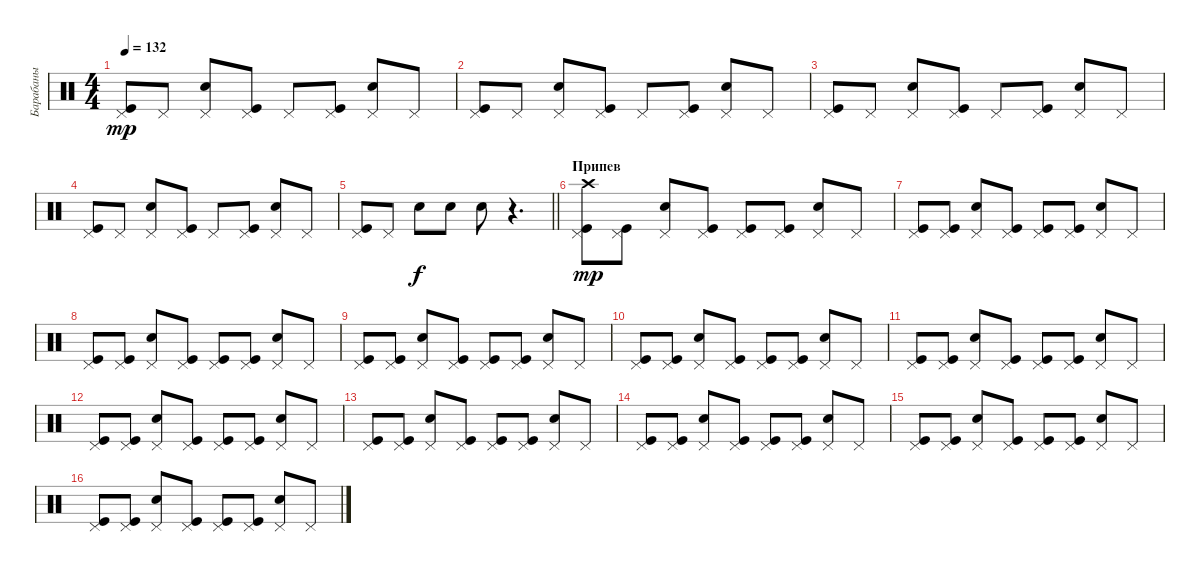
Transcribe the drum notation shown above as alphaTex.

\track ("Барабаны" "Барабаны") {instrument percussion}
\staff {score}
\articulation defaults
\ts (4 4)
\tempo 132
\clef neutral
\ks c
("Kick (hit)" "Pedal Hi-Hat (hit)").8{dy mp} "Pedal Hi-Hat (hit)".8 ("Snare (hit) 2" "Pedal Hi-Hat (hit)").8 ("Kick (hit)" "Pedal Hi-Hat (hit)").8 "Pedal Hi-Hat (hit)".8 ("Kick (hit)" "Pedal Hi-Hat (hit)").8 ("Snare (hit) 2" "Pedal Hi-Hat (hit)").8 "Pedal Hi-Hat (hit)".8 |
("Kick (hit)" "Pedal Hi-Hat (hit)").8 "Pedal Hi-Hat (hit)".8 ("Snare (hit) 2" "Pedal Hi-Hat (hit)").8 ("Kick (hit)" "Pedal Hi-Hat (hit)").8 "Pedal Hi-Hat (hit)".8 ("Kick (hit)" "Pedal Hi-Hat (hit)").8 ("Snare (hit) 2" "Pedal Hi-Hat (hit)").8 "Pedal Hi-Hat (hit)".8 |
("Kick (hit)" "Pedal Hi-Hat (hit)").8 "Pedal Hi-Hat (hit)".8 ("Snare (hit) 2" "Pedal Hi-Hat (hit)").8 ("Kick (hit)" "Pedal Hi-Hat (hit)").8 "Pedal Hi-Hat (hit)".8 ("Kick (hit)" "Pedal Hi-Hat (hit)").8 ("Snare (hit) 2" "Pedal Hi-Hat (hit)").8 "Pedal Hi-Hat (hit)".8 |
("Kick (hit)" "Pedal Hi-Hat (hit)").8 "Pedal Hi-Hat (hit)".8 ("Snare (hit) 2" "Pedal Hi-Hat (hit)").8 ("Kick (hit)" "Pedal Hi-Hat (hit)").8 "Pedal Hi-Hat (hit)".8 ("Kick (hit)" "Pedal Hi-Hat (hit)").8 ("Snare (hit) 2" "Pedal Hi-Hat (hit)").8 "Pedal Hi-Hat (hit)".8 |
\barLineRight lightlight
("Kick (hit)" "Pedal Hi-Hat (hit)").8 "Pedal Hi-Hat (hit)".8 "Snare (hit) 2".8{dy f} "Snare (hit) 2".8 "Snare (hit) 2".8 r.4{d} |
\section ("" "Припев")
("Kick (hit)" "Pedal Hi-Hat (hit)" "Crash high (hit)").8{dy mp} ("Kick (hit)" "Pedal Hi-Hat (hit)").8 ("Snare (hit) 2" "Pedal Hi-Hat (hit)").8 ("Kick (hit)" "Pedal Hi-Hat (hit)").8 ("Kick (hit)" "Pedal Hi-Hat (hit)").8 ("Kick (hit)" "Pedal Hi-Hat (hit)").8 ("Snare (hit) 2" "Pedal Hi-Hat (hit)").8 "Pedal Hi-Hat (hit)".8 |
("Kick (hit)" "Pedal Hi-Hat (hit)").8 ("Kick (hit)" "Pedal Hi-Hat (hit)").8 ("Snare (hit) 2" "Pedal Hi-Hat (hit)").8 ("Kick (hit)" "Pedal Hi-Hat (hit)").8 ("Kick (hit)" "Pedal Hi-Hat (hit)").8 ("Kick (hit)" "Pedal Hi-Hat (hit)").8 ("Snare (hit) 2" "Pedal Hi-Hat (hit)").8 "Pedal Hi-Hat (hit)".8 |
("Kick (hit)" "Pedal Hi-Hat (hit)").8 ("Kick (hit)" "Pedal Hi-Hat (hit)").8 ("Snare (hit) 2" "Pedal Hi-Hat (hit)").8 ("Kick (hit)" "Pedal Hi-Hat (hit)").8 ("Kick (hit)" "Pedal Hi-Hat (hit)").8 ("Kick (hit)" "Pedal Hi-Hat (hit)").8 ("Snare (hit) 2" "Pedal Hi-Hat (hit)").8 "Pedal Hi-Hat (hit)".8 |
("Kick (hit)" "Pedal Hi-Hat (hit)").8 ("Kick (hit)" "Pedal Hi-Hat (hit)").8 ("Snare (hit) 2" "Pedal Hi-Hat (hit)").8 ("Kick (hit)" "Pedal Hi-Hat (hit)").8 ("Kick (hit)" "Pedal Hi-Hat (hit)").8 ("Kick (hit)" "Pedal Hi-Hat (hit)").8 ("Snare (hit) 2" "Pedal Hi-Hat (hit)").8 "Pedal Hi-Hat (hit)".8 |
("Kick (hit)" "Pedal Hi-Hat (hit)").8 ("Kick (hit)" "Pedal Hi-Hat (hit)").8 ("Snare (hit) 2" "Pedal Hi-Hat (hit)").8 ("Kick (hit)" "Pedal Hi-Hat (hit)").8 ("Kick (hit)" "Pedal Hi-Hat (hit)").8 ("Kick (hit)" "Pedal Hi-Hat (hit)").8 ("Snare (hit) 2" "Pedal Hi-Hat (hit)").8 "Pedal Hi-Hat (hit)".8 |
("Kick (hit)" "Pedal Hi-Hat (hit)").8 ("Kick (hit)" "Pedal Hi-Hat (hit)").8 ("Snare (hit) 2" "Pedal Hi-Hat (hit)").8 ("Kick (hit)" "Pedal Hi-Hat (hit)").8 ("Kick (hit)" "Pedal Hi-Hat (hit)").8 ("Kick (hit)" "Pedal Hi-Hat (hit)").8 ("Snare (hit) 2" "Pedal Hi-Hat (hit)").8 "Pedal Hi-Hat (hit)".8 |
("Kick (hit)" "Pedal Hi-Hat (hit)").8 ("Kick (hit)" "Pedal Hi-Hat (hit)").8 ("Snare (hit) 2" "Pedal Hi-Hat (hit)").8 ("Kick (hit)" "Pedal Hi-Hat (hit)").8 ("Kick (hit)" "Pedal Hi-Hat (hit)").8 ("Kick (hit)" "Pedal Hi-Hat (hit)").8 ("Snare (hit) 2" "Pedal Hi-Hat (hit)").8 "Pedal Hi-Hat (hit)".8 |
("Kick (hit)" "Pedal Hi-Hat (hit)").8 ("Kick (hit)" "Pedal Hi-Hat (hit)").8 ("Snare (hit) 2" "Pedal Hi-Hat (hit)").8 ("Kick (hit)" "Pedal Hi-Hat (hit)").8 ("Kick (hit)" "Pedal Hi-Hat (hit)").8 ("Kick (hit)" "Pedal Hi-Hat (hit)").8 ("Snare (hit) 2" "Pedal Hi-Hat (hit)").8 "Pedal Hi-Hat (hit)".8 |
("Kick (hit)" "Pedal Hi-Hat (hit)").8 ("Kick (hit)" "Pedal Hi-Hat (hit)").8 ("Snare (hit) 2" "Pedal Hi-Hat (hit)").8 ("Kick (hit)" "Pedal Hi-Hat (hit)").8 ("Kick (hit)" "Pedal Hi-Hat (hit)").8 ("Kick (hit)" "Pedal Hi-Hat (hit)").8 ("Snare (hit) 2" "Pedal Hi-Hat (hit)").8 "Pedal Hi-Hat (hit)".8 |
("Kick (hit)" "Pedal Hi-Hat (hit)").8 ("Kick (hit)" "Pedal Hi-Hat (hit)").8 ("Snare (hit) 2" "Pedal Hi-Hat (hit)").8 ("Kick (hit)" "Pedal Hi-Hat (hit)").8 ("Kick (hit)" "Pedal Hi-Hat (hit)").8 ("Kick (hit)" "Pedal Hi-Hat (hit)").8 ("Snare (hit) 2" "Pedal Hi-Hat (hit)").8 "Pedal Hi-Hat (hit)".8 |
("Kick (hit)" "Pedal Hi-Hat (hit)").8 ("Kick (hit)" "Pedal Hi-Hat (hit)").8 ("Snare (hit) 2" "Pedal Hi-Hat (hit)").8 ("Kick (hit)" "Pedal Hi-Hat (hit)").8 ("Kick (hit)" "Pedal Hi-Hat (hit)").8 ("Kick (hit)" "Pedal Hi-Hat (hit)").8 ("Snare (hit) 2" "Pedal Hi-Hat (hit)").8 "Pedal Hi-Hat (hit)".8
